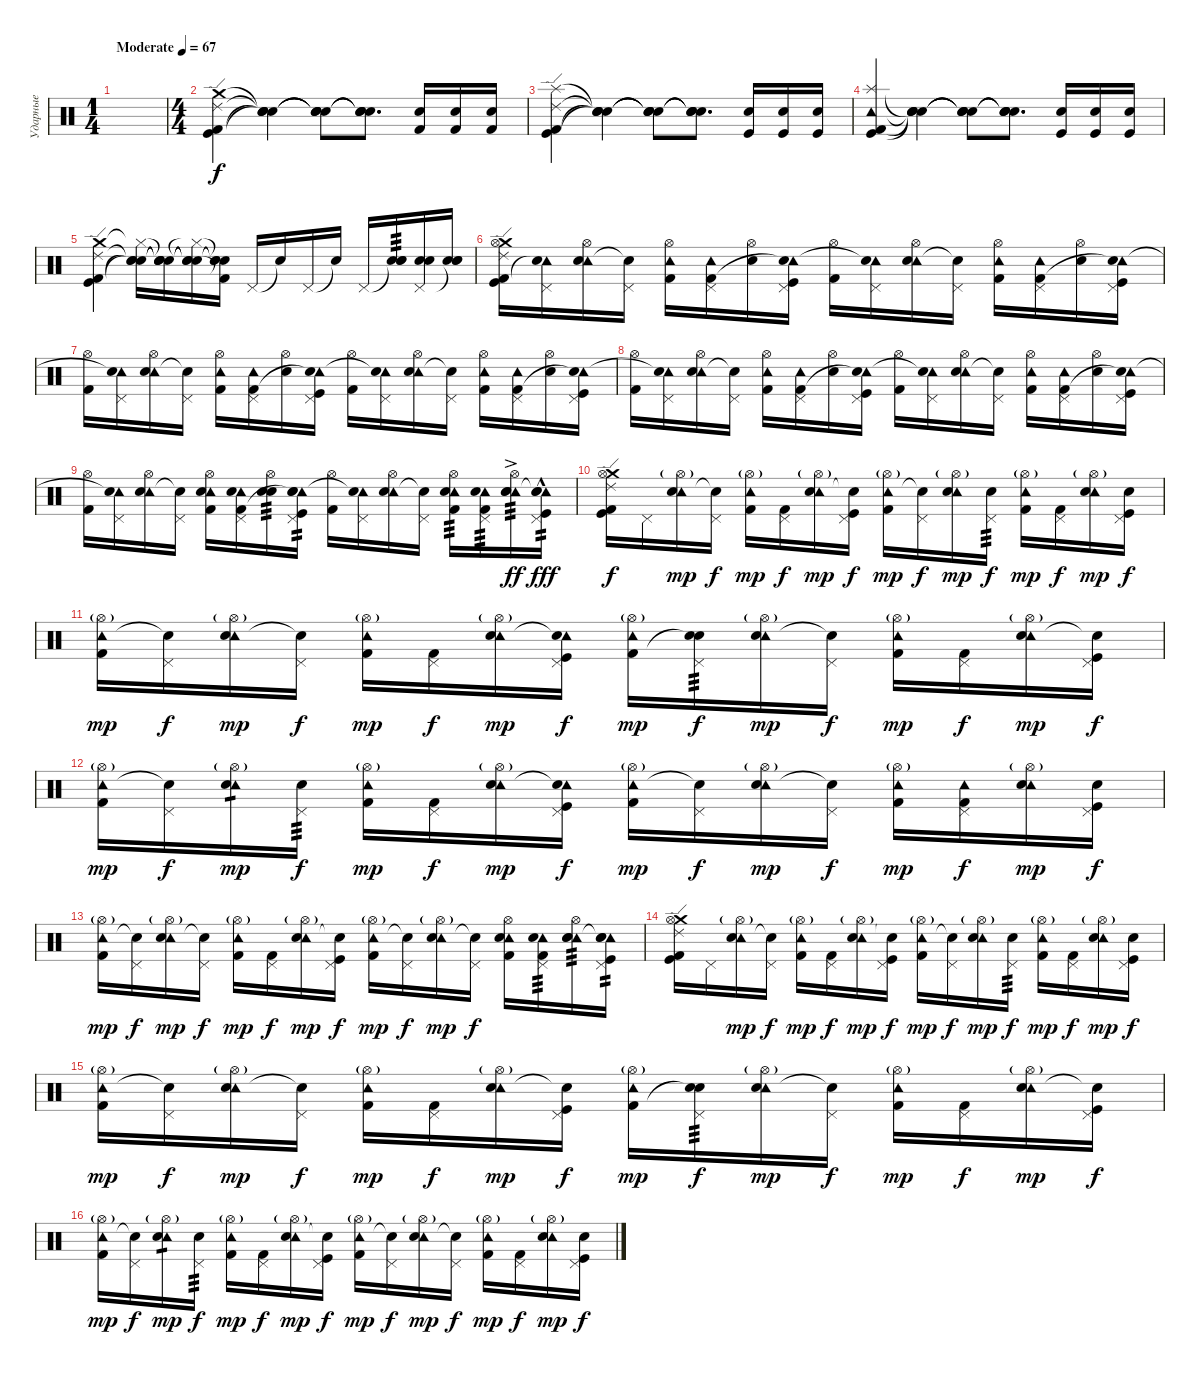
\track ("Ударные" "Ударные") {instrument percussion}
\staff {score}
\articulation defaults
\ts (1 4)
\tempo (67 "Moderate")
\clef neutral
\ks c
|
\ts (4 4)
("Crash medium (hit)" "Kick (hit) 2" "Kick (hit)" "Ride (edge) 2").4 ("Snare (hit)"{t} "Snare (hit)"{t} "Snare (hit)"{t} "Snare (hit)"{t}).4 ("Snare (hit)"{t} "Snare (hit)"{t} "Snare (hit)"{t} "Snare (hit)"{t}).8 ("Snare (hit)"{t} "Snare (hit)"{t} "Snare (hit)"{t} "Snare (hit)"{t}).8{d} ("Kick (hit) 2" "Hand Clap (hit)").16 ("Kick (hit) 2" "Hand Clap (hit)").16 ("Kick (hit) 2" "Hand Clap (hit)").16 |
("Splash (hit)" "Kick (hit) 2" "Kick (hit)" "Ride (edge) 2").4 ("Snare (hit)"{t} "Snare (hit)"{t} "Snare (hit)"{t} "Snare (hit)"{t}).4 ("Snare (hit)"{t} "Snare (hit)"{t} "Snare (hit)"{t} "Snare (hit)"{t}).8 ("Snare (hit)"{t} "Snare (hit)"{t} "Snare (hit)"{t} "Snare (hit)"{t}).8{d} ("Kick (hit)" "Hand Clap (hit)").16 ("Kick (hit)" "Hand Clap (hit)").16 ("Kick (hit)" "Hand Clap (hit)").16 |
("Splash (hit)" "Kick (hit) 2" "Kick (hit)" "Tambourine (hit)").4 ("Snare (hit)"{t} "Snare (hit)"{t} "Snare (hit)"{t} "Snare (hit)"{t}).4 ("Snare (hit)"{t} "Snare (hit)"{t} "Snare (hit)"{t} "Snare (hit)"{t}).8 ("Snare (hit)"{t} "Snare (hit)"{t} "Snare (hit)"{t} "Snare (hit)"{t}).8{d} ("Kick (hit)" "Hand Clap (hit)").16 ("Kick (hit)" "Hand Clap (hit)").16 ("Kick (hit)" "Hand Clap (hit)").16 |
("Crash medium (hit)" "Kick (hit) 2" "Kick (hit)" "Ride (edge) 2").4 ("Hi-Hat (closed)"{t} "Snare (hit)"{t} "Snare (hit)"{t} "Snare (hit)"{t}).16 ("Snare (hit)"{t} "Snare (hit)"{t} "Snare (hit)"{t} "Snare (hit)"{t}).16 ("Hi-Hat (closed)"{t} "Snare (hit)"{t} "Snare (hit)"{t} "Snare (hit)"{t}).16 ("Snare (hit)"{t} "Snare (hit)"{t} "Kick (hit) 2"{t} "Hand Clap (hit)"{t}).16 "Pedal Hi-Hat (hit)".16 "Snare (hit)"{t}.16 "Pedal Hi-Hat (hit)".16 "Snare (hit)"{t}.16 "Pedal Hi-Hat (hit)".16 ("Snare (hit)"{t} "Electric Snare (hit)" "Snare (hit) 2").16{tp 3} ("Pedal Hi-Hat (hit)" "Electric Snare (hit)" "Snare (hit) 2").16 ("Snare (hit)"{t} "Electric Snare (hit)" "Snare (hit) 2").16 |
("Crash medium (hit)" "Kick (hit) 2" "Kick (hit)" "Ride (edge) 2" "Hi-Hat (open)").16 ("Pedal Hi-Hat (hit)" "Tambourine (hit)" "Snare (hit)"{t}).16 ("Hi-Hat (open)" "Tambourine (hit)" "Snare (hit) 2").16 ("Pedal Hi-Hat (hit)" "Snare (hit) 2"{t}).16 ("Hi-Hat (open)" "Tambourine (hit)" "Kick (hit) 2").16 ("Pedal Hi-Hat (hit)" "Tambourine (hit)" "Kick (hit) 2").16 ("Hi-Hat (open)" "Snare (hit) 2").16 ("Pedal Hi-Hat (hit)" "Tambourine (hit)" "Snare (hit) 2"{t} "Kick (hit)").16 ("Hi-Hat (open)" "Kick (hit) 2").16 ("Pedal Hi-Hat (hit)" "Tambourine (hit)" "Snare (hit)"{t}).16 ("Hi-Hat (open)" "Tambourine (hit)" "Snare (hit) 2").16 ("Pedal Hi-Hat (hit)" "Snare (hit) 2"{t}).16 ("Hi-Hat (open)" "Tambourine (hit)" "Kick (hit) 2").16 ("Pedal Hi-Hat (hit)" "Tambourine (hit)" "Kick (hit) 2").16 ("Hi-Hat (open)" "Snare (hit) 2").16 ("Pedal Hi-Hat (hit)" "Tambourine (hit)" "Snare (hit) 2"{t} "Kick (hit)").16 |
("Hi-Hat (open)" "Kick (hit) 2").16 ("Pedal Hi-Hat (hit)" "Tambourine (hit)" "Snare (hit)"{t}).16 ("Hi-Hat (open)" "Tambourine (hit)" "Snare (hit) 2").16 ("Pedal Hi-Hat (hit)" "Snare (hit) 2"{t}).16 ("Hi-Hat (open)" "Tambourine (hit)" "Kick (hit) 2").16 ("Pedal Hi-Hat (hit)" "Tambourine (hit)" "Kick (hit) 2").16 ("Hi-Hat (open)" "Snare (hit) 2").16 ("Pedal Hi-Hat (hit)" "Tambourine (hit)" "Snare (hit) 2"{t} "Kick (hit)").16 ("Hi-Hat (open)" "Kick (hit) 2").16 ("Pedal Hi-Hat (hit)" "Tambourine (hit)" "Snare (hit)"{t}).16 ("Hi-Hat (open)" "Tambourine (hit)" "Snare (hit) 2").16 ("Pedal Hi-Hat (hit)" "Snare (hit) 2"{t}).16 ("Hi-Hat (open)" "Tambourine (hit)" "Kick (hit) 2").16 ("Pedal Hi-Hat (hit)" "Tambourine (hit)" "Kick (hit) 2").16 ("Hi-Hat (open)" "Snare (hit) 2").16 ("Pedal Hi-Hat (hit)" "Tambourine (hit)" "Snare (hit) 2"{t} "Kick (hit)").16 |
("Hi-Hat (open)" "Kick (hit) 2").16 ("Pedal Hi-Hat (hit)" "Tambourine (hit)" "Snare (hit)"{t}).16 ("Hi-Hat (open)" "Tambourine (hit)" "Snare (hit) 2").16 ("Pedal Hi-Hat (hit)" "Snare (hit) 2"{t}).16 ("Hi-Hat (open)" "Tambourine (hit)" "Kick (hit) 2").16 ("Pedal Hi-Hat (hit)" "Tambourine (hit)" "Kick (hit) 2").16 ("Hi-Hat (open)" "Snare (hit) 2").16 ("Pedal Hi-Hat (hit)" "Tambourine (hit)" "Snare (hit) 2"{t} "Kick (hit)").16 ("Hi-Hat (open)" "Kick (hit) 2").16 ("Pedal Hi-Hat (hit)" "Tambourine (hit)" "Snare (hit)"{t}).16 ("Hi-Hat (open)" "Tambourine (hit)" "Snare (hit) 2").16 ("Pedal Hi-Hat (hit)" "Snare (hit) 2"{t}).16 ("Hi-Hat (open)" "Tambourine (hit)" "Kick (hit) 2").16 ("Pedal Hi-Hat (hit)" "Tambourine (hit)" "Kick (hit) 2").16 ("Hi-Hat (open)" "Snare (hit) 2").16 ("Pedal Hi-Hat (hit)" "Tambourine (hit)" "Snare (hit) 2"{t} "Kick (hit)").16 |
("Hi-Hat (open)" "Kick (hit) 2").16 ("Pedal Hi-Hat (hit)" "Tambourine (hit)" "Snare (hit)"{t}).16 ("Hi-Hat (open)" "Tambourine (hit)" "Snare (hit) 2").16 ("Pedal Hi-Hat (hit)" "Snare (hit) 2"{t}).16 ("Hi-Hat (open)" "Tambourine (hit)" "Snare (hit) 2" "Kick (hit) 2").16 ("Pedal Hi-Hat (hit)" "Tambourine (hit)" "Snare (hit) 2" "Kick (hit) 2").16 ("Hi-Hat (open)" "Snare (hit) 2" "Snare (hit) 2").16{tp 3} ("Pedal Hi-Hat (hit)" "Tambourine (hit)" "Snare (hit) 2" "Snare (hit) 2"{t} "Kick (hit)").16{tp 2} ("Hi-Hat (open)" "Kick (hit) 2").16 ("Pedal Hi-Hat (hit)" "Tambourine (hit)" "Snare (hit)"{t}).16 ("Hi-Hat (open)" "Tambourine (hit)" "Snare (hit) 2").16 ("Pedal Hi-Hat (hit)" "Snare (hit) 2"{t}).16 ("Hi-Hat (open)" "Tambourine (hit)" "Electric Snare (hit)" "Kick (hit) 2").16{tp 3} ("Pedal Hi-Hat (hit)" "Tambourine (hit)" "Electric Snare (hit)" "Kick (hit) 2").16{tp 3} ("Hi-Hat (open)" "Tambourine (hit)" "Electric Snare (hit)"{ac} "Snare (hit) 2").16{tp 3 dy ff} ("Pedal Hi-Hat (hit)" "Tambourine (hit)" "Electric Snare (hit)"{hac} "Snare (hit) 2"{t} "Kick (hit)").16{tp 2 dy fff} |
("Crash medium (hit)" "Kick (hit) 2" "Kick (hit)" "Ride (edge) 2" "Hi-Hat (open)").16{dy f} "Pedal Hi-Hat (hit)".16 ("Hi-Hat (open)"{g} "Tambourine (hit)" "Snare (hit) 2").16{dy mp} ("Pedal Hi-Hat (hit)" "Snare (hit) 2"{t}).16{dy f} ("Hi-Hat (open)"{g} "Tambourine (hit)" "Kick (hit) 2").16{dy mp} ("Pedal Hi-Hat (hit)" "Kick (hit) 2").16{dy f} ("Hi-Hat (open)"{g} "Tambourine (hit)" "Snare (hit) 2").16{dy mp} ("Pedal Hi-Hat (hit)" "Snare (hit) 2"{t} "Kick (hit)").16{dy f} ("Hi-Hat (open)"{g} "Tambourine (hit)" "Kick (hit) 2").16{dy mp} ("Pedal Hi-Hat (hit)" "Snare (hit)"{t}).16{dy f} ("Hi-Hat (open)"{g} "Tambourine (hit)" "Snare (hit) 2").16{dy mp} ("Pedal Hi-Hat (hit)" "Snare (hit) 2").16{tp 3 dy f} ("Hi-Hat (open)"{g} "Tambourine (hit)" "Kick (hit) 2").16{dy mp} ("Pedal Hi-Hat (hit)" "Kick (hit) 2").16{dy f} ("Hi-Hat (open)"{g} "Tambourine (hit)" "Snare (hit) 2").16{dy mp} ("Pedal Hi-Hat (hit)" "Snare (hit) 2" "Kick (hit)").16{dy f} |
("Hi-Hat (open)"{g} "Tambourine (hit)" "Kick (hit) 2").16{dy mp} ("Pedal Hi-Hat (hit)" "Snare (hit)"{t}).16{dy f} ("Hi-Hat (open)"{g} "Tambourine (hit)" "Snare (hit) 2").16{dy mp} ("Pedal Hi-Hat (hit)" "Snare (hit) 2"{t}).16{dy f} ("Hi-Hat (open)"{g} "Tambourine (hit)" "Kick (hit) 2").16{dy mp} ("Pedal Hi-Hat (hit)" "Kick (hit) 2").16{dy f} ("Hi-Hat (open)"{g} "Tambourine (hit)" "Snare (hit) 2").16{dy mp} ("Pedal Hi-Hat (hit)" "Tambourine (hit)" "Snare (hit) 2"{t} "Kick (hit)").16{dy f} ("Hi-Hat (open)"{g} "Tambourine (hit)" "Kick (hit) 2").16{dy mp} ("Pedal Hi-Hat (hit)" "Snare (hit) 2" "Snare (hit)"{t}).16{tp 3 dy f} ("Hi-Hat (open)"{g} "Tambourine (hit)" "Snare (hit) 2").16{dy mp} ("Pedal Hi-Hat (hit)" "Snare (hit) 2"{t}).16{dy f} ("Hi-Hat (open)"{g} "Tambourine (hit)" "Kick (hit) 2").16{dy mp} ("Pedal Hi-Hat (hit)" "Kick (hit) 2").16{dy f} ("Hi-Hat (open)"{g} "Tambourine (hit)" "Snare (hit) 2").16{dy mp} ("Pedal Hi-Hat (hit)" "Snare (hit) 2"{t} "Kick (hit)").16{dy f} |
("Hi-Hat (open)"{g} "Tambourine (hit)" "Kick (hit) 2").16{dy mp} ("Pedal Hi-Hat (hit)" "Snare (hit)"{t}).16{dy f} ("Hi-Hat (open)"{g} "Tambourine (hit)" "Snare (hit) 2").16{tp 1 dy mp} ("Pedal Hi-Hat (hit)" "Snare (hit) 2").16{tp 3 dy f} ("Hi-Hat (open)"{g} "Tambourine (hit)" "Kick (hit) 2").16{dy mp} ("Pedal Hi-Hat (hit)" "Kick (hit) 2").16{dy f} ("Hi-Hat (open)"{g} "Tambourine (hit)" "Snare (hit) 2").16{dy mp} ("Pedal Hi-Hat (hit)" "Tambourine (hit)" "Snare (hit) 2"{t} "Kick (hit)").16{dy f} ("Hi-Hat (open)"{g} "Tambourine (hit)" "Kick (hit) 2").16{dy mp} ("Pedal Hi-Hat (hit)" "Snare (hit)"{t}).16{dy f} ("Hi-Hat (open)"{g} "Tambourine (hit)" "Snare (hit) 2").16{dy mp} ("Pedal Hi-Hat (hit)" "Snare (hit) 2"{t}).16{dy f} ("Hi-Hat (open)"{g} "Tambourine (hit)" "Kick (hit) 2").16{dy mp} ("Pedal Hi-Hat (hit)" "Tambourine (hit)" "Kick (hit) 2").16{dy f} ("Hi-Hat (open)"{g} "Tambourine (hit)" "Electric Snare (hit)").16{dy mp} ("Pedal Hi-Hat (hit)" "Electric Snare (hit)" "Kick (hit)").16{dy f} |
("Hi-Hat (open)"{g} "Tambourine (hit)" "Kick (hit) 2").16{dy mp} ("Pedal Hi-Hat (hit)" "Snare (hit)"{t}).16{dy f} ("Hi-Hat (open)"{g} "Tambourine (hit)" "Snare (hit) 2").16{dy mp} ("Pedal Hi-Hat (hit)" "Snare (hit) 2"{t}).16{dy f} ("Hi-Hat (open)"{g} "Tambourine (hit)" "Kick (hit) 2").16{dy mp} ("Pedal Hi-Hat (hit)" "Kick (hit) 2").16{dy f} ("Hi-Hat (open)"{g} "Tambourine (hit)" "Electric Snare (hit)").16{dy mp} ("Pedal Hi-Hat (hit)" "Snare (hit) 2"{t} "Kick (hit)").16{dy f} ("Hi-Hat (open)"{g} "Tambourine (hit)" "Kick (hit) 2").16{dy mp} ("Pedal Hi-Hat (hit)" "Snare (hit)"{t}).16{dy f} ("Hi-Hat (open)"{g} "Tambourine (hit)" "Snare (hit) 2").16{dy mp} ("Pedal Hi-Hat (hit)" "Snare (hit) 2"{t}).16{dy f} ("Hi-Hat (open)" "Tambourine (hit)" "Snare (hit) 2" "Kick (hit) 2").16 ("Pedal Hi-Hat (hit)" "Tambourine (hit)" "Snare (hit) 2" "Kick (hit) 2").16{tp 3} ("Hi-Hat (open)" "Tambourine (hit)" "Snare (hit) 2" "Snare (hit) 2").16{tp 3} ("Pedal Hi-Hat (hit)" "Tambourine (hit)" "Snare (hit) 2" "Snare (hit) 2"{t} "Kick (hit)").16{tp 2} |
("Crash medium (hit)" "Kick (hit) 2" "Kick (hit)" "Ride (edge) 2" "Hi-Hat (open)").16 "Pedal Hi-Hat (hit)".16 ("Hi-Hat (open)"{g} "Tambourine (hit)" "Snare (hit) 2").16{dy mp} ("Pedal Hi-Hat (hit)" "Snare (hit) 2"{t}).16{dy f} ("Hi-Hat (open)"{g} "Tambourine (hit)" "Kick (hit) 2").16{dy mp} ("Pedal Hi-Hat (hit)" "Kick (hit) 2").16{dy f} ("Hi-Hat (open)"{g} "Tambourine (hit)" "Electric Snare (hit)").16{dy mp} ("Pedal Hi-Hat (hit)" "Snare (hit) 2"{t} "Kick (hit)").16{dy f} ("Hi-Hat (open)"{g} "Tambourine (hit)" "Kick (hit) 2").16{dy mp} ("Pedal Hi-Hat (hit)" "Snare (hit)"{t}).16{dy f} ("Hi-Hat (open)"{g} "Tambourine (hit)" "Electric Snare (hit)").16{dy mp} ("Pedal Hi-Hat (hit)" "Snare (hit) 2").16{tp 3 dy f} ("Hi-Hat (open)"{g} "Tambourine (hit)" "Kick (hit) 2").16{dy mp} ("Pedal Hi-Hat (hit)" "Kick (hit) 2").16{dy f} ("Hi-Hat (open)"{g} "Tambourine (hit)" "Snare (hit) 2").16{dy mp} ("Pedal Hi-Hat (hit)" "Snare (hit) 2" "Kick (hit)").16{dy f} |
("Hi-Hat (open)"{g} "Tambourine (hit)" "Kick (hit) 2").16{dy mp} ("Pedal Hi-Hat (hit)" "Snare (hit)"{t}).16{dy f} ("Hi-Hat (open)"{g} "Tambourine (hit)" "Snare (hit) 2").16{dy mp} ("Pedal Hi-Hat (hit)" "Snare (hit) 2"{t}).16{dy f} ("Hi-Hat (open)"{g} "Tambourine (hit)" "Kick (hit) 2").16{dy mp} ("Pedal Hi-Hat (hit)" "Kick (hit) 2").16{dy f} ("Hi-Hat (open)"{g} "Tambourine (hit)" "Electric Snare (hit)").16{dy mp} ("Pedal Hi-Hat (hit)" "Snare (hit) 2"{t} "Kick (hit)").16{dy f} ("Hi-Hat (open)"{g} "Tambourine (hit)" "Kick (hit) 2").16{dy mp} ("Pedal Hi-Hat (hit)" "Snare (hit) 2" "Snare (hit)"{t}).16{tp 3 dy f} ("Hi-Hat (open)"{g} "Tambourine (hit)" "Electric Snare (hit)").16{dy mp} ("Pedal Hi-Hat (hit)" "Snare (hit) 2"{t}).16{dy f} ("Hi-Hat (open)"{g} "Tambourine (hit)" "Kick (hit) 2").16{dy mp} ("Pedal Hi-Hat (hit)" "Kick (hit) 2").16{dy f} ("Hi-Hat (open)"{g} "Tambourine (hit)" "Snare (hit) 2").16{dy mp} ("Pedal Hi-Hat (hit)" "Snare (hit) 2"{t} "Kick (hit)").16{dy f} |
("Hi-Hat (open)"{g} "Tambourine (hit)" "Kick (hit) 2").16{dy mp} ("Pedal Hi-Hat (hit)" "Snare (hit)"{t}).16{dy f} ("Hi-Hat (open)"{g} "Tambourine (hit)" "Snare (hit) 2").16{tp 1 dy mp} ("Pedal Hi-Hat (hit)" "Snare (hit) 2").16{tp 3 dy f} ("Hi-Hat (open)"{g} "Tambourine (hit)" "Kick (hit) 2").16{dy mp} ("Pedal Hi-Hat (hit)" "Kick (hit) 2").16{dy f} ("Hi-Hat (open)"{g} "Tambourine (hit)" "Electric Snare (hit)").16{dy mp} ("Pedal Hi-Hat (hit)" "Snare (hit) 2"{t} "Kick (hit)").16{dy f} ("Hi-Hat (open)"{g} "Tambourine (hit)" "Kick (hit) 2").16{dy mp} ("Pedal Hi-Hat (hit)" "Snare (hit)"{t}).16{dy f} ("Hi-Hat (open)"{g} "Tambourine (hit)" "Snare (hit) 2").16{dy mp} ("Pedal Hi-Hat (hit)" "Snare (hit) 2"{t}).16{dy f} ("Hi-Hat (open)"{g} "Tambourine (hit)" "Kick (hit) 2").16{dy mp} ("Pedal Hi-Hat (hit)" "Kick (hit) 2").16{dy f} ("Hi-Hat (open)"{g} "Tambourine (hit)" "Electric Snare (hit)").16{dy mp} ("Pedal Hi-Hat (hit)" "Electric Snare (hit)" "Kick (hit)").16{dy f}
